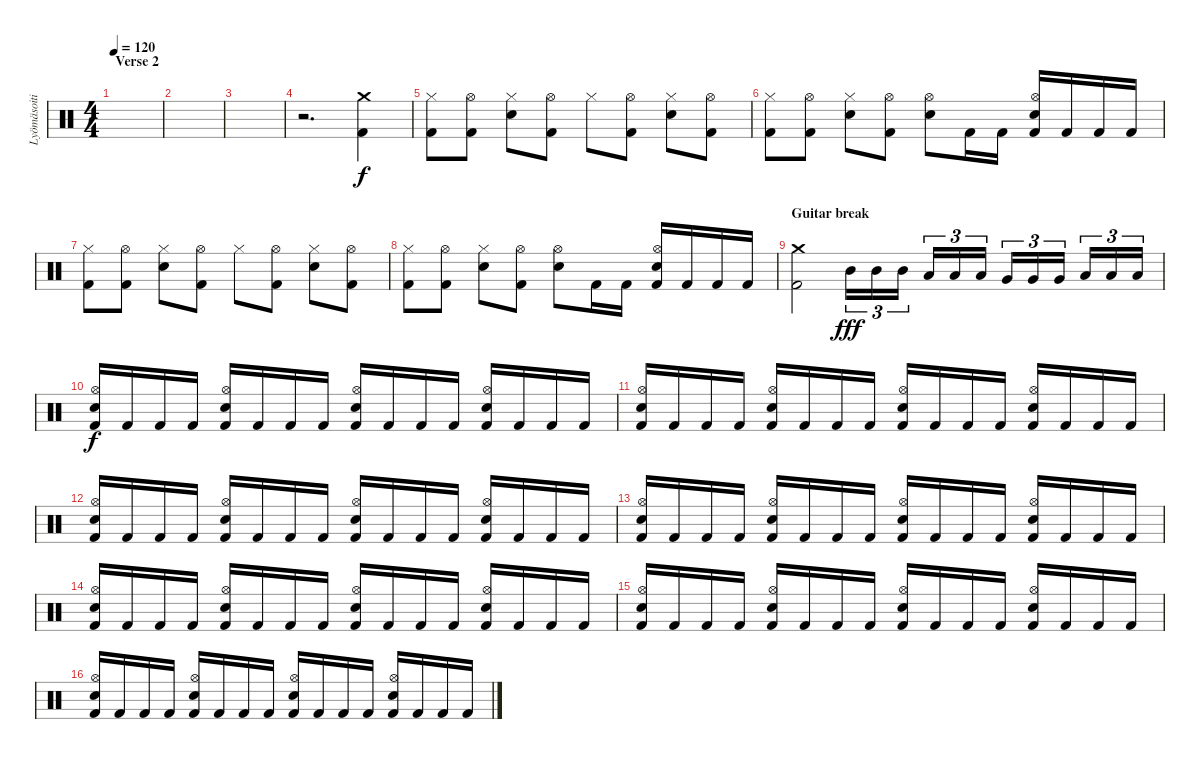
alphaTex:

\track ("Lyömäsoitin" "Lyömäsoiti") {instrument percussion}
\staff {score}
\articulation defaults
\ts (4 4)
\section ("" "Verse 2")
\tempo 120
\clef neutral
\ks c
|
|
|
r.2{d} ("Crash medium (hit)" "Kick (hit) 2").4 |
("Hi-Hat (closed)" "Kick (hit) 2").8 ("Hi-Hat (open)" "Kick (hit) 2").8 ("Hi-Hat (closed)" "Electric Snare (hit)").8 ("Hi-Hat (open)" "Kick (hit) 2").8 "Hi-Hat (closed)".8 ("Hi-Hat (open)" "Kick (hit) 2").8 ("Hi-Hat (closed)" "Electric Snare (hit)").8 ("Hi-Hat (open)" "Kick (hit) 2").8 |
("Hi-Hat (closed)" "Kick (hit) 2").8 ("Hi-Hat (open)" "Kick (hit) 2").8 ("Hi-Hat (closed)" "Electric Snare (hit)").8 ("Hi-Hat (open)" "Kick (hit) 2").8 ("Hi-Hat (open)" "Electric Snare (hit)").8 "Kick (hit) 2".16 "Kick (hit) 2".16 ("Hi-Hat (open)" "Electric Snare (hit)" "Kick (hit) 2").16 "Kick (hit) 2".16 "Kick (hit) 2".16 "Kick (hit) 2".16 |
("Hi-Hat (closed)" "Kick (hit) 2").8 ("Hi-Hat (open)" "Kick (hit) 2").8 ("Hi-Hat (closed)" "Electric Snare (hit)").8 ("Hi-Hat (open)" "Kick (hit) 2").8 "Hi-Hat (closed)".8 ("Hi-Hat (open)" "Kick (hit) 2").8 ("Hi-Hat (closed)" "Electric Snare (hit)").8 ("Hi-Hat (open)" "Kick (hit) 2").8 |
("Hi-Hat (closed)" "Kick (hit) 2").8 ("Hi-Hat (open)" "Kick (hit) 2").8 ("Hi-Hat (closed)" "Electric Snare (hit)").8 ("Hi-Hat (open)" "Kick (hit) 2").8 ("Hi-Hat (open)" "Electric Snare (hit)").8 "Kick (hit) 2".16 "Kick (hit) 2".16 ("Hi-Hat (open)" "Electric Snare (hit)" "Kick (hit) 2").16 "Kick (hit) 2".16 "Kick (hit) 2".16 "Kick (hit) 2".16 |
\section ("" "Guitar break")
("Crash medium (hit)" "Kick (hit) 2").2 "Mid Tom (hit)".16{tu (3 2) dy fff} "Mid Tom (hit)".16{tu (3 2)} "Mid Tom (hit)".16{tu (3 2)} "Low Tom (hit)".16{tu (3 2)} "Low Tom (hit)".16{tu (3 2)} "Low Tom (hit)".16{tu (3 2)} "Very Low Tom (hit)".16{tu (3 2)} "Very Low Tom (hit)".16{tu (3 2)} "Very Low Tom (hit)".16{tu (3 2)} "Low Floor Tom (hit)".16{tu (3 2)} "Low Floor Tom (hit)".16{tu (3 2)} "Low Floor Tom (hit)".16{tu (3 2)} |
("Hi-Hat (open)" "Electric Snare (hit)" "Kick (hit) 2").16{dy f} "Kick (hit) 2".16 "Kick (hit) 2".16 "Kick (hit) 2".16 ("Hi-Hat (open)" "Electric Snare (hit)" "Kick (hit) 2").16 "Kick (hit) 2".16 "Kick (hit) 2".16 "Kick (hit) 2".16 ("Hi-Hat (open)" "Electric Snare (hit)" "Kick (hit) 2").16 "Kick (hit) 2".16 "Kick (hit) 2".16 "Kick (hit) 2".16 ("Hi-Hat (open)" "Electric Snare (hit)" "Kick (hit) 2").16 "Kick (hit) 2".16 "Kick (hit) 2".16 "Kick (hit) 2".16 |
("Hi-Hat (open)" "Electric Snare (hit)" "Kick (hit) 2").16 "Kick (hit) 2".16 "Kick (hit) 2".16 "Kick (hit) 2".16 ("Hi-Hat (open)" "Electric Snare (hit)" "Kick (hit) 2").16 "Kick (hit) 2".16 "Kick (hit) 2".16 "Kick (hit) 2".16 ("Hi-Hat (open)" "Electric Snare (hit)" "Kick (hit) 2").16 "Kick (hit) 2".16 "Kick (hit) 2".16 "Kick (hit) 2".16 ("Hi-Hat (open)" "Electric Snare (hit)" "Kick (hit) 2").16 "Kick (hit) 2".16 "Kick (hit) 2".16 "Kick (hit) 2".16 |
("Hi-Hat (open)" "Electric Snare (hit)" "Kick (hit) 2").16 "Kick (hit) 2".16 "Kick (hit) 2".16 "Kick (hit) 2".16 ("Hi-Hat (open)" "Electric Snare (hit)" "Kick (hit) 2").16 "Kick (hit) 2".16 "Kick (hit) 2".16 "Kick (hit) 2".16 ("Hi-Hat (open)" "Electric Snare (hit)" "Kick (hit) 2").16 "Kick (hit) 2".16 "Kick (hit) 2".16 "Kick (hit) 2".16 ("Hi-Hat (open)" "Electric Snare (hit)" "Kick (hit) 2").16 "Kick (hit) 2".16 "Kick (hit) 2".16 "Kick (hit) 2".16 |
("Hi-Hat (open)" "Electric Snare (hit)" "Kick (hit) 2").16 "Kick (hit) 2".16 "Kick (hit) 2".16 "Kick (hit) 2".16 ("Hi-Hat (open)" "Electric Snare (hit)" "Kick (hit) 2").16 "Kick (hit) 2".16 "Kick (hit) 2".16 "Kick (hit) 2".16 ("Hi-Hat (open)" "Electric Snare (hit)" "Kick (hit) 2").16 "Kick (hit) 2".16 "Kick (hit) 2".16 "Kick (hit) 2".16 ("Hi-Hat (open)" "Electric Snare (hit)" "Kick (hit) 2").16 "Kick (hit) 2".16 "Kick (hit) 2".16 "Kick (hit) 2".16 |
("Hi-Hat (open)" "Electric Snare (hit)" "Kick (hit) 2").16 "Kick (hit) 2".16 "Kick (hit) 2".16 "Kick (hit) 2".16 ("Hi-Hat (open)" "Electric Snare (hit)" "Kick (hit) 2").16 "Kick (hit) 2".16 "Kick (hit) 2".16 "Kick (hit) 2".16 ("Hi-Hat (open)" "Electric Snare (hit)" "Kick (hit) 2").16 "Kick (hit) 2".16 "Kick (hit) 2".16 "Kick (hit) 2".16 ("Hi-Hat (open)" "Electric Snare (hit)" "Kick (hit) 2").16 "Kick (hit) 2".16 "Kick (hit) 2".16 "Kick (hit) 2".16 |
("Hi-Hat (open)" "Electric Snare (hit)" "Kick (hit) 2").16 "Kick (hit) 2".16 "Kick (hit) 2".16 "Kick (hit) 2".16 ("Hi-Hat (open)" "Electric Snare (hit)" "Kick (hit) 2").16 "Kick (hit) 2".16 "Kick (hit) 2".16 "Kick (hit) 2".16 ("Hi-Hat (open)" "Electric Snare (hit)" "Kick (hit) 2").16 "Kick (hit) 2".16 "Kick (hit) 2".16 "Kick (hit) 2".16 ("Hi-Hat (open)" "Electric Snare (hit)" "Kick (hit) 2").16 "Kick (hit) 2".16 "Kick (hit) 2".16 "Kick (hit) 2".16 |
("Hi-Hat (open)" "Electric Snare (hit)" "Kick (hit) 2").16 "Kick (hit) 2".16 "Kick (hit) 2".16 "Kick (hit) 2".16 ("Hi-Hat (open)" "Electric Snare (hit)" "Kick (hit) 2").16 "Kick (hit) 2".16 "Kick (hit) 2".16 "Kick (hit) 2".16 ("Hi-Hat (open)" "Electric Snare (hit)" "Kick (hit) 2").16 "Kick (hit) 2".16 "Kick (hit) 2".16 "Kick (hit) 2".16 ("Hi-Hat (open)" "Electric Snare (hit)" "Kick (hit) 2").16 "Kick (hit) 2".16 "Kick (hit) 2".16 "Kick (hit) 2".16
